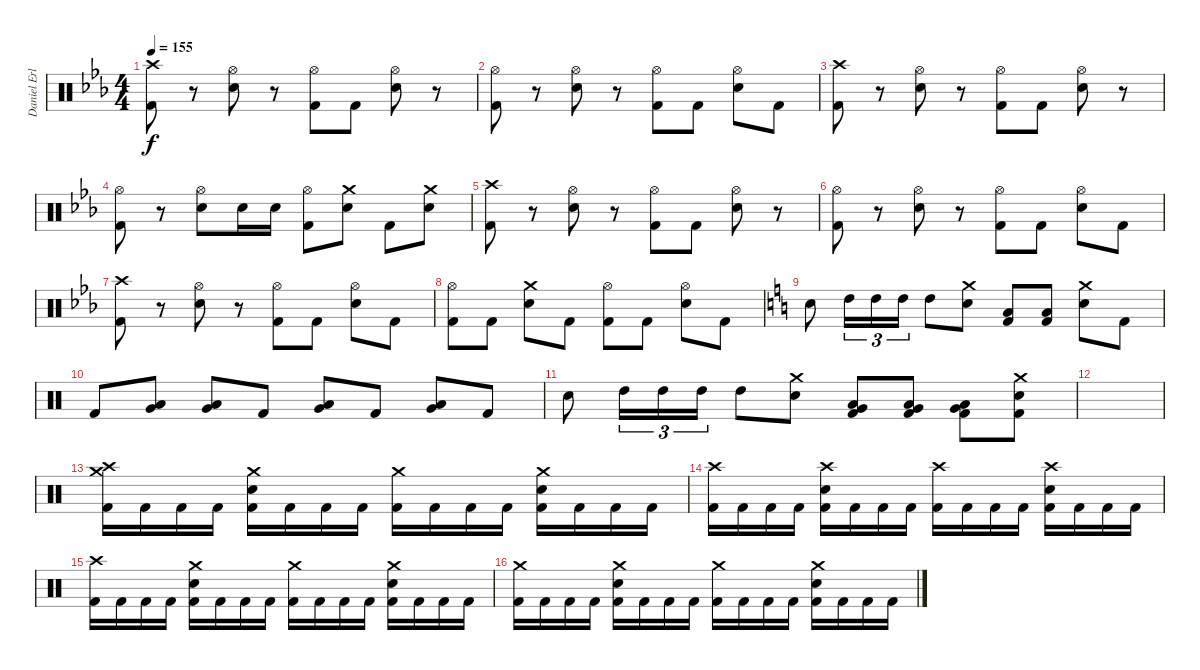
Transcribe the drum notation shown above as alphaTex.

\track ("Daniel Erlandsson" "Daniel Erl") {instrument percussion}
\staff {score}
\articulation defaults
\ts (4 4)
\tempo 155
\clef neutral
\ks cminor
("Crash high (hit)" "Kick (hit) 2").8{dy f} r.8 ("Hi-Hat (open)" "Snare (hit) 2").8 r.8 ("Hi-Hat (open)" "Kick (hit) 2").8 "Kick (hit) 2".8 ("Hi-Hat (open)" "Snare (hit) 2").8 r.8 |
("Hi-Hat (open)" "Kick (hit) 2").8 r.8 ("Hi-Hat (open)" "Snare (hit) 2").8 r.8 ("Hi-Hat (open)" "Kick (hit) 2").8 "Kick (hit) 2".8 ("Hi-Hat (open)" "Snare (hit) 2").8 "Kick (hit) 2".8 |
("Crash high (hit)" "Kick (hit) 2").8 r.8 ("Hi-Hat (open)" "Snare (hit) 2").8 r.8 ("Hi-Hat (open)" "Kick (hit) 2").8 "Kick (hit) 2".8 ("Hi-Hat (open)" "Snare (hit) 2").8 r.8 |
("Hi-Hat (open)" "Kick (hit) 2").8 r.8 ("Hi-Hat (open)" "Snare (hit) 2").8 "Snare (hit) 2".16 "Snare (hit) 2".16 ("Hi-Hat (open)" "Kick (hit) 2").8 ("Crash medium (hit)" "Snare (hit) 2").8 "Kick (hit) 2".8 ("Crash medium (hit)" "Snare (hit) 2").8 |
("Crash high (hit)" "Kick (hit) 2").8 r.8 ("Hi-Hat (open)" "Snare (hit) 2").8 r.8 ("Hi-Hat (open)" "Kick (hit) 2").8 "Kick (hit) 2".8 ("Hi-Hat (open)" "Snare (hit) 2").8 r.8 |
("Hi-Hat (open)" "Kick (hit) 2").8 r.8 ("Hi-Hat (open)" "Snare (hit) 2").8 r.8 ("Hi-Hat (open)" "Kick (hit) 2").8 "Kick (hit) 2".8 ("Hi-Hat (open)" "Snare (hit) 2").8 "Kick (hit) 2".8 |
("Crash high (hit)" "Kick (hit) 2").8 r.8 ("Hi-Hat (open)" "Snare (hit) 2").8 r.8 ("Hi-Hat (open)" "Kick (hit) 2").8 "Kick (hit) 2".8 ("Hi-Hat (open)" "Snare (hit) 2").8 "Kick (hit) 2".8 |
("Hi-Hat (open)" "Kick (hit) 2").8 "Kick (hit) 2".8 ("Crash medium (hit)" "Snare (hit) 2").8 "Kick (hit) 2".8 ("Hi-Hat (open)" "Kick (hit) 2").8 "Kick (hit) 2".8 ("Hi-Hat (open)" "Snare (hit) 2").8 "Kick (hit) 2".8 |
\ks c "Snare (hit) 2".8 "High Tom (hit)".16{tu (3 2)} "High Tom (hit)".16{tu (3 2)} "High Tom (hit)".16{tu (3 2)} "High Tom (hit)".8
("Crash medium (hit)" "Snare (hit) 2").8 ("Low Tom (hit)" "Kick (hit) 2").8 ("Low Tom (hit)" "Kick (hit) 2").8 ("Crash medium (hit)" "Snare (hit) 2").8 "Kick (hit) 2".8 |
"Kick (hit) 2".8 ("Very Low Tom (hit)" "Low Tom (hit)").8 ("Very Low Tom (hit)" "Low Tom (hit)").8 "Kick (hit) 2".8 ("Very Low Tom (hit)" "Low Tom (hit)").8 "Kick (hit) 2".8 ("Low Floor Tom (hit)" "Very Low Tom (hit)").8 "Kick (hit) 2".8 |
"Snare (hit) 2".8 "High Tom (hit)".16{tu (3 2)} "High Tom (hit)".16{tu (3 2)} "High Tom (hit)".16{tu (3 2)} "High Tom (hit)".8 ("Crash medium (hit)" "Snare (hit) 2").8 ("Very Low Tom (hit)" "Low Tom (hit)" "Kick (hit) 2").8 ("Very Low Tom (hit)" "Low Tom (hit)" "Kick (hit) 2").8 ("Very Low Tom (hit)" "Low Tom (hit)" "Kick (hit) 2").8 ("Crash medium (hit)" "Snare (hit) 2" "Kick (hit) 2").8 |
|
("Crash high (hit)" "Crash medium (hit)" "Kick (hit) 2").16 "Kick (hit) 2".16 "Kick (hit) 2".16 "Kick (hit) 2".16 ("Crash medium (hit)" "Snare (hit) 2" "Kick (hit) 2").16 "Kick (hit) 2".16 "Kick (hit) 2".16 "Kick (hit) 2".16 ("Crash medium (hit)" "Kick (hit) 2").16 "Kick (hit) 2".16 "Kick (hit) 2".16 "Kick (hit) 2".16 ("Crash medium (hit)" "Snare (hit) 2" "Kick (hit) 2").16 "Kick (hit) 2".16 "Kick (hit) 2".16 "Kick (hit) 2".16 |
("Crash high (hit)" "Kick (hit) 2").16 "Kick (hit) 2".16 "Kick (hit) 2".16 "Kick (hit) 2".16 ("Crash high (hit)" "Snare (hit) 2" "Kick (hit) 2").16 "Kick (hit) 2".16 "Kick (hit) 2".16 "Kick (hit) 2".16 ("Crash high (hit)" "Kick (hit) 2").16 "Kick (hit) 2".16 "Kick (hit) 2".16 "Kick (hit) 2".16 ("Crash high (hit)" "Snare (hit) 2" "Kick (hit) 2").16 "Kick (hit) 2".16 "Kick (hit) 2".16 "Kick (hit) 2".16 |
("Crash high (hit)" "Kick (hit) 2").16 "Kick (hit) 2".16 "Kick (hit) 2".16 "Kick (hit) 2".16 ("Crash medium (hit)" "Snare (hit) 2" "Kick (hit) 2").16 "Kick (hit) 2".16 "Kick (hit) 2".16 "Kick (hit) 2".16 ("Crash medium (hit)" "Kick (hit) 2").16 "Kick (hit) 2".16 "Kick (hit) 2".16 "Kick (hit) 2".16 ("Crash medium (hit)" "Snare (hit) 2" "Kick (hit) 2").16 "Kick (hit) 2".16 "Kick (hit) 2".16 "Kick (hit) 2".16 |
("Crash medium (hit)" "Kick (hit) 2").16 "Kick (hit) 2".16 "Kick (hit) 2".16 "Kick (hit) 2".16 ("Crash medium (hit)" "Snare (hit) 2" "Kick (hit) 2").16 "Kick (hit) 2".16 "Kick (hit) 2".16 "Kick (hit) 2".16 ("Crash medium (hit)" "Kick (hit) 2").16 "Kick (hit) 2".16 "Kick (hit) 2".16 "Kick (hit) 2".16 ("Crash medium (hit)" "Snare (hit) 2" "Kick (hit) 2").16 "Kick (hit) 2".16 "Kick (hit) 2".16 "Kick (hit) 2".16
